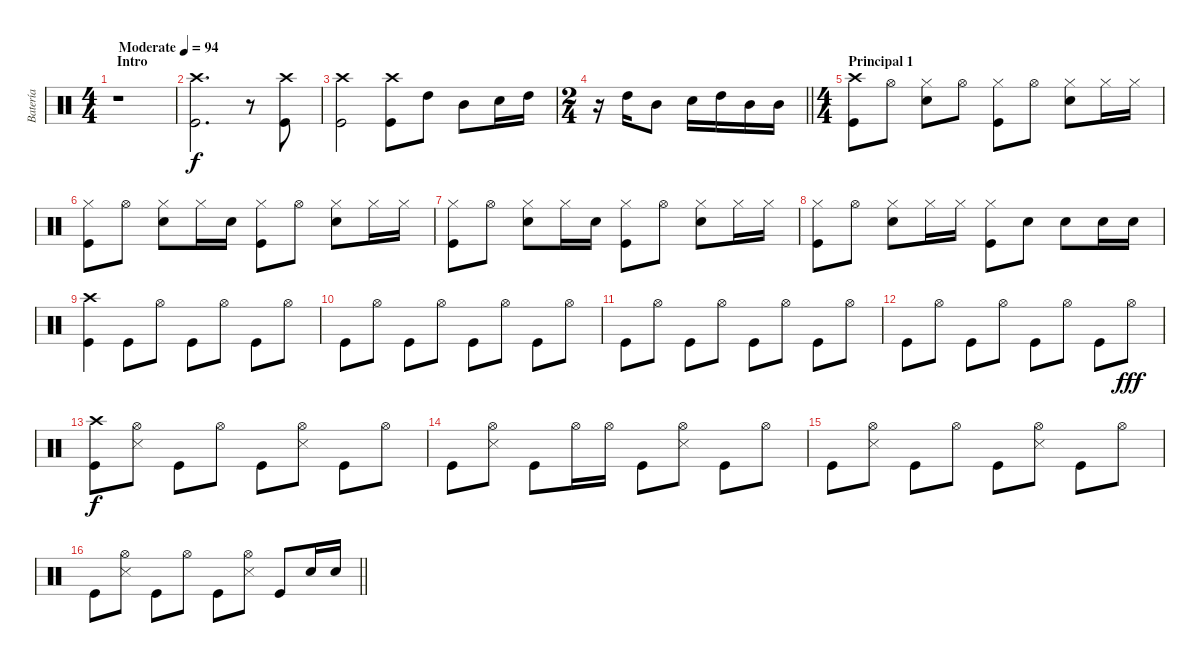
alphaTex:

\track ("Batería" "Batería") {instrument percussion}
\staff {score}
\articulation defaults
\ts (4 4)
\section ("" " Intro")
\tempo (94 "Moderate")
\clef neutral
\ks c
r.1{dy f} |
("Crash high (hit)" "Kick (hit)").2{d} r.8 ("Crash high (hit)" "Kick (hit)").8 |
("Crash high (hit)" "Kick (hit)").2 ("Crash high (hit)" "Kick (hit)").8 "High Tom (hit)".8 "Mid Tom (hit)".8 "Snare (hit) 2".16 "High Tom (hit)".16 |
\ts (2 4)
\barLineRight lightlight
r.16 "High Tom (hit)".16 "Mid Tom (hit)".8 "Snare (hit) 2".16 "High Tom (hit)".16 "Mid Tom (hit)".16 "Mid Tom (hit)".16 |
\ts (4 4)
\section ("" "Principal 1")
("Crash high (hit)" "Kick (hit)").8 "Hi-Hat (open)".8 ("Hi-Hat (closed)" "Snare (hit) 2").8 "Hi-Hat (open)".8 ("Hi-Hat (closed)" "Kick (hit)").8 "Hi-Hat (open)".8 ("Hi-Hat (closed)" "Snare (hit) 2").8 "Hi-Hat (closed)".16 "Hi-Hat (closed)".16 |
("Hi-Hat (closed)" "Kick (hit)").8 "Hi-Hat (open)".8 ("Hi-Hat (closed)" "Snare (hit) 2").8 "Hi-Hat (closed)".16 "Snare (hit) 2".16 ("Hi-Hat (closed)" "Kick (hit)").8 "Hi-Hat (open)".8 ("Hi-Hat (closed)" "Snare (hit) 2").8 "Hi-Hat (closed)".16 "Hi-Hat (closed)".16 |
("Hi-Hat (closed)" "Kick (hit)").8 "Hi-Hat (open)".8 ("Hi-Hat (closed)" "Snare (hit) 2").8 "Hi-Hat (closed)".16 "Snare (hit) 2".16 ("Hi-Hat (closed)" "Kick (hit)").8 "Hi-Hat (open)".8 ("Hi-Hat (closed)" "Snare (hit) 2").8 "Hi-Hat (closed)".16 "Hi-Hat (closed)".16 |
("Hi-Hat (closed)" "Kick (hit)").8 "Hi-Hat (open)".8 ("Hi-Hat (closed)" "Snare (hit) 2").8 "Hi-Hat (closed)".16 "Hi-Hat (closed)".16 ("Hi-Hat (closed)" "Kick (hit)").8 "Snare (hit) 2".8 "Snare (hit) 2".8 "Snare (hit) 2".16 "Snare (hit) 2".16 |
("Crash high (hit)" "Kick (hit)").4 "Kick (hit)".8 "Hi-Hat (open)".8 "Kick (hit)".8 "Hi-Hat (open)".8 "Kick (hit)".8 "Hi-Hat (open)".8 |
"Kick (hit)".8 "Hi-Hat (open)".8 "Kick (hit)".8 "Hi-Hat (open)".8 "Kick (hit)".8 "Hi-Hat (open)".8 "Kick (hit)".8 "Hi-Hat (open)".8 |
"Kick (hit)".8 "Hi-Hat (open)".8 "Kick (hit)".8 "Hi-Hat (open)".8 "Kick (hit)".8 "Hi-Hat (open)".8 "Kick (hit)".8 "Hi-Hat (open)".8 |
"Kick (hit)".8 "Hi-Hat (open)".8 "Kick (hit)".8 "Hi-Hat (open)".8 "Kick (hit)".8 "Hi-Hat (open)".8 "Kick (hit)".8 "Hi-Hat (open)".8{dy fff} |
("Crash high (hit)" "Kick (hit)").8{dy f} ("Hi-Hat (open)" "Snare (side stick) 3").8 "Kick (hit)".8 "Hi-Hat (open)".8 "Kick (hit)".8 ("Hi-Hat (open)" "Snare (side stick) 3").8 "Kick (hit)".8 "Hi-Hat (open)".8 |
"Kick (hit)".8 ("Hi-Hat (open)" "Snare (side stick) 3").8 "Kick (hit)".8 "Hi-Hat (open)".16 "Hi-Hat (open)".16 "Kick (hit)".8 ("Hi-Hat (open)" "Snare (side stick) 3").8 "Kick (hit)".8 "Hi-Hat (open)".8 |
"Kick (hit)".8 ("Hi-Hat (open)" "Snare (side stick) 3").8 "Kick (hit)".8 "Hi-Hat (open)".8 "Kick (hit)".8 ("Hi-Hat (open)" "Snare (side stick) 3").8 "Kick (hit)".8 "Hi-Hat (open)".8 |
\barLineRight lightlight "Kick (hit)".8
("Hi-Hat (open)" "Snare (side stick) 3").8 "Kick (hit)".8 "Hi-Hat (open)".8 "Kick (hit)".8 ("Hi-Hat (open)" "Snare (side stick) 3").8 "Kick (hit)".8 "Snare (hit) 2".16 "Snare (hit) 2".16
